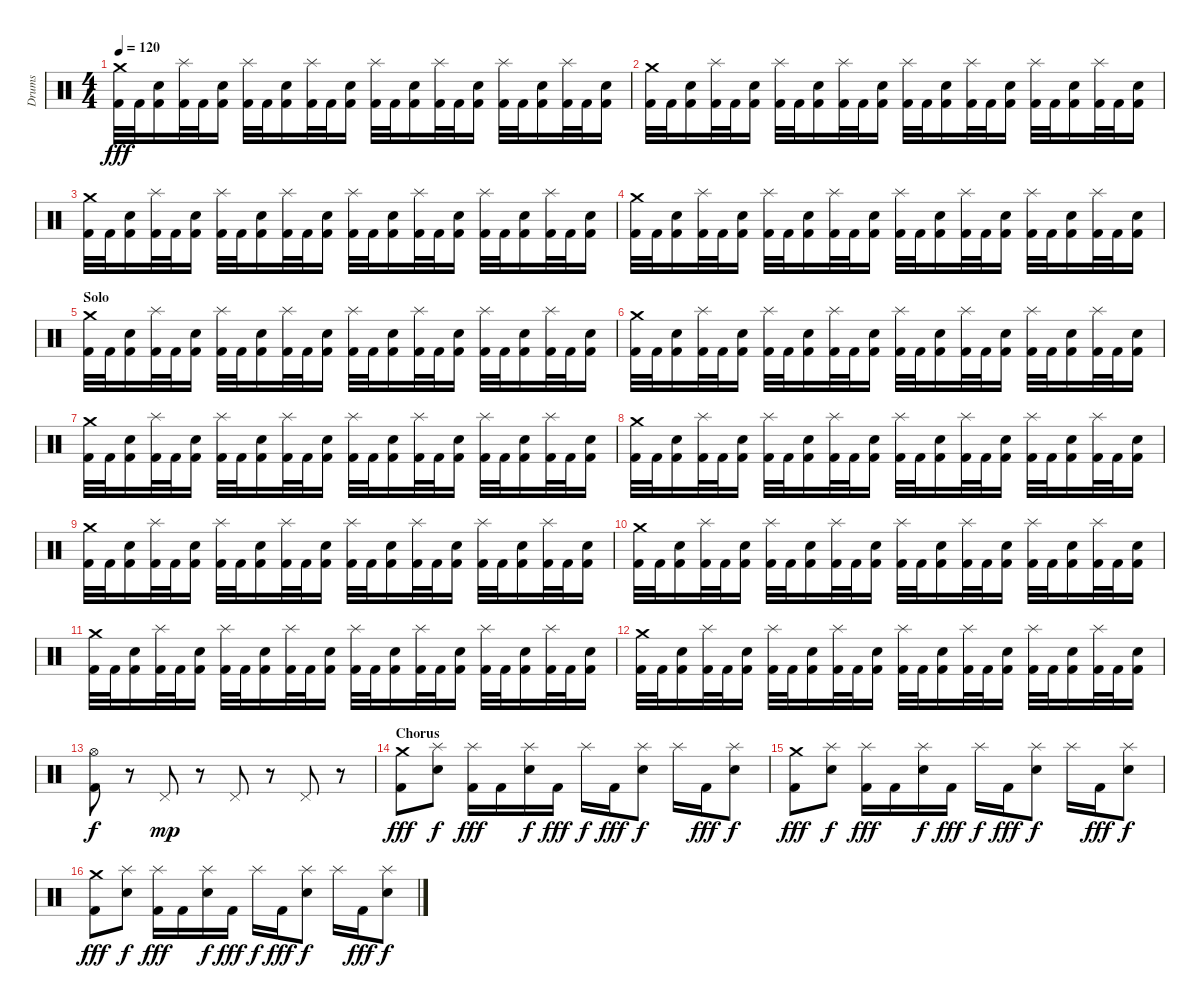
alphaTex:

\track ("Drums" "Drums") {instrument percussion}
\staff {score}
\articulation defaults
\ts (4 4)
\tempo 120
\clef neutral
\ks c
("Crash medium (hit)" "Kick (hit) 2").32{dy fff} "Kick (hit) 2".32 ("Electric Snare (hit)" "Kick (hit) 2").16 ("Splash (hit)" "Kick (hit) 2").32 "Kick (hit) 2".32 ("Electric Snare (hit)" "Kick (hit) 2").16 ("Splash (hit)" "Kick (hit) 2").32 "Kick (hit) 2".32 ("Electric Snare (hit)" "Kick (hit) 2").16 ("Splash (hit)" "Kick (hit) 2").32 "Kick (hit) 2".32 ("Electric Snare (hit)" "Kick (hit) 2").16 ("Splash (hit)" "Kick (hit) 2").32 "Kick (hit) 2".32 ("Electric Snare (hit)" "Kick (hit) 2").16 ("Splash (hit)" "Kick (hit) 2").32 "Kick (hit) 2".32 ("Electric Snare (hit)" "Kick (hit) 2").16 ("Splash (hit)" "Kick (hit) 2").32 "Kick (hit) 2".32 ("Electric Snare (hit)" "Kick (hit) 2").16 ("Splash (hit)" "Kick (hit) 2").32 "Kick (hit) 2".32 ("Electric Snare (hit)" "Kick (hit) 2").16 |
("Crash medium (hit)" "Kick (hit) 2").32 "Kick (hit) 2".32 ("Electric Snare (hit)" "Kick (hit) 2").16 ("Splash (hit)" "Kick (hit) 2").32 "Kick (hit) 2".32 ("Electric Snare (hit)" "Kick (hit) 2").16 ("Splash (hit)" "Kick (hit) 2").32 "Kick (hit) 2".32 ("Electric Snare (hit)" "Kick (hit) 2").16 ("Splash (hit)" "Kick (hit) 2").32 "Kick (hit) 2".32 ("Electric Snare (hit)" "Kick (hit) 2").16 ("Splash (hit)" "Kick (hit) 2").32 "Kick (hit) 2".32 ("Electric Snare (hit)" "Kick (hit) 2").16 ("Splash (hit)" "Kick (hit) 2").32 "Kick (hit) 2".32 ("Electric Snare (hit)" "Kick (hit) 2").16 ("Splash (hit)" "Kick (hit) 2").32 "Kick (hit) 2".32 ("Electric Snare (hit)" "Kick (hit) 2").16 ("Splash (hit)" "Kick (hit) 2").32 "Kick (hit) 2".32 ("Electric Snare (hit)" "Kick (hit) 2").16 |
("Crash medium (hit)" "Kick (hit) 2").32 "Kick (hit) 2".32 ("Electric Snare (hit)" "Kick (hit) 2").16 ("Splash (hit)" "Kick (hit) 2").32 "Kick (hit) 2".32 ("Electric Snare (hit)" "Kick (hit) 2").16 ("Splash (hit)" "Kick (hit) 2").32 "Kick (hit) 2".32 ("Electric Snare (hit)" "Kick (hit) 2").16 ("Splash (hit)" "Kick (hit) 2").32 "Kick (hit) 2".32 ("Electric Snare (hit)" "Kick (hit) 2").16 ("Splash (hit)" "Kick (hit) 2").32 "Kick (hit) 2".32 ("Electric Snare (hit)" "Kick (hit) 2").16 ("Splash (hit)" "Kick (hit) 2").32 "Kick (hit) 2".32 ("Electric Snare (hit)" "Kick (hit) 2").16 ("Splash (hit)" "Kick (hit) 2").32 "Kick (hit) 2".32 ("Electric Snare (hit)" "Kick (hit) 2").16 ("Splash (hit)" "Kick (hit) 2").32 "Kick (hit) 2".32 ("Electric Snare (hit)" "Kick (hit) 2").16 |
("Crash medium (hit)" "Kick (hit) 2").32 "Kick (hit) 2".32 ("Electric Snare (hit)" "Kick (hit) 2").16 ("Splash (hit)" "Kick (hit) 2").32 "Kick (hit) 2".32 ("Electric Snare (hit)" "Kick (hit) 2").16 ("Splash (hit)" "Kick (hit) 2").32 "Kick (hit) 2".32 ("Electric Snare (hit)" "Kick (hit) 2").16 ("Splash (hit)" "Kick (hit) 2").32 "Kick (hit) 2".32 ("Electric Snare (hit)" "Kick (hit) 2").16 ("Splash (hit)" "Kick (hit) 2").32 "Kick (hit) 2".32 ("Electric Snare (hit)" "Kick (hit) 2").16 ("Splash (hit)" "Kick (hit) 2").32 "Kick (hit) 2".32 ("Electric Snare (hit)" "Kick (hit) 2").16 ("Splash (hit)" "Kick (hit) 2").32 "Kick (hit) 2".32 ("Electric Snare (hit)" "Kick (hit) 2").16 ("Splash (hit)" "Kick (hit) 2").32 "Kick (hit) 2".32 ("Electric Snare (hit)" "Kick (hit) 2").16 |
\section ("" "Solo")
("Crash medium (hit)" "Kick (hit) 2").32 "Kick (hit) 2".32 ("Electric Snare (hit)" "Kick (hit) 2").16 ("Splash (hit)" "Kick (hit) 2").32 "Kick (hit) 2".32 ("Electric Snare (hit)" "Kick (hit) 2").16 ("Splash (hit)" "Kick (hit) 2").32 "Kick (hit) 2".32 ("Electric Snare (hit)" "Kick (hit) 2").16 ("Splash (hit)" "Kick (hit) 2").32 "Kick (hit) 2".32 ("Electric Snare (hit)" "Kick (hit) 2").16 ("Splash (hit)" "Kick (hit) 2").32 "Kick (hit) 2".32 ("Electric Snare (hit)" "Kick (hit) 2").16 ("Splash (hit)" "Kick (hit) 2").32 "Kick (hit) 2".32 ("Electric Snare (hit)" "Kick (hit) 2").16 ("Splash (hit)" "Kick (hit) 2").32 "Kick (hit) 2".32 ("Electric Snare (hit)" "Kick (hit) 2").16 ("Splash (hit)" "Kick (hit) 2").32 "Kick (hit) 2".32 ("Electric Snare (hit)" "Kick (hit) 2").16 |
("Crash medium (hit)" "Kick (hit) 2").32 "Kick (hit) 2".32 ("Electric Snare (hit)" "Kick (hit) 2").16 ("Splash (hit)" "Kick (hit) 2").32 "Kick (hit) 2".32 ("Electric Snare (hit)" "Kick (hit) 2").16 ("Splash (hit)" "Kick (hit) 2").32 "Kick (hit) 2".32 ("Electric Snare (hit)" "Kick (hit) 2").16 ("Splash (hit)" "Kick (hit) 2").32 "Kick (hit) 2".32 ("Electric Snare (hit)" "Kick (hit) 2").16 ("Splash (hit)" "Kick (hit) 2").32 "Kick (hit) 2".32 ("Electric Snare (hit)" "Kick (hit) 2").16 ("Splash (hit)" "Kick (hit) 2").32 "Kick (hit) 2".32 ("Electric Snare (hit)" "Kick (hit) 2").16 ("Splash (hit)" "Kick (hit) 2").32 "Kick (hit) 2".32 ("Electric Snare (hit)" "Kick (hit) 2").16 ("Splash (hit)" "Kick (hit) 2").32 "Kick (hit) 2".32 ("Electric Snare (hit)" "Kick (hit) 2").16 |
("Crash medium (hit)" "Kick (hit) 2").32 "Kick (hit) 2".32 ("Electric Snare (hit)" "Kick (hit) 2").16 ("Splash (hit)" "Kick (hit) 2").32 "Kick (hit) 2".32 ("Electric Snare (hit)" "Kick (hit) 2").16 ("Splash (hit)" "Kick (hit) 2").32 "Kick (hit) 2".32 ("Electric Snare (hit)" "Kick (hit) 2").16 ("Splash (hit)" "Kick (hit) 2").32 "Kick (hit) 2".32 ("Electric Snare (hit)" "Kick (hit) 2").16 ("Splash (hit)" "Kick (hit) 2").32 "Kick (hit) 2".32 ("Electric Snare (hit)" "Kick (hit) 2").16 ("Splash (hit)" "Kick (hit) 2").32 "Kick (hit) 2".32 ("Electric Snare (hit)" "Kick (hit) 2").16 ("Splash (hit)" "Kick (hit) 2").32 "Kick (hit) 2".32 ("Electric Snare (hit)" "Kick (hit) 2").16 ("Splash (hit)" "Kick (hit) 2").32 "Kick (hit) 2".32 ("Electric Snare (hit)" "Kick (hit) 2").16 |
("Crash medium (hit)" "Kick (hit) 2").32 "Kick (hit) 2".32 ("Electric Snare (hit)" "Kick (hit) 2").16 ("Splash (hit)" "Kick (hit) 2").32 "Kick (hit) 2".32 ("Electric Snare (hit)" "Kick (hit) 2").16 ("Splash (hit)" "Kick (hit) 2").32 "Kick (hit) 2".32 ("Electric Snare (hit)" "Kick (hit) 2").16 ("Splash (hit)" "Kick (hit) 2").32 "Kick (hit) 2".32 ("Electric Snare (hit)" "Kick (hit) 2").16 ("Splash (hit)" "Kick (hit) 2").32 "Kick (hit) 2".32 ("Electric Snare (hit)" "Kick (hit) 2").16 ("Splash (hit)" "Kick (hit) 2").32 "Kick (hit) 2".32 ("Electric Snare (hit)" "Kick (hit) 2").16 ("Splash (hit)" "Kick (hit) 2").32 "Kick (hit) 2".32 ("Electric Snare (hit)" "Kick (hit) 2").16 ("Splash (hit)" "Kick (hit) 2").32 "Kick (hit) 2".32 ("Electric Snare (hit)" "Kick (hit) 2").16 |
("Crash medium (hit)" "Kick (hit) 2").32 "Kick (hit) 2".32 ("Electric Snare (hit)" "Kick (hit) 2").16 ("Splash (hit)" "Kick (hit) 2").32 "Kick (hit) 2".32 ("Electric Snare (hit)" "Kick (hit) 2").16 ("Splash (hit)" "Kick (hit) 2").32 "Kick (hit) 2".32 ("Electric Snare (hit)" "Kick (hit) 2").16 ("Splash (hit)" "Kick (hit) 2").32 "Kick (hit) 2".32 ("Electric Snare (hit)" "Kick (hit) 2").16 ("Splash (hit)" "Kick (hit) 2").32 "Kick (hit) 2".32 ("Electric Snare (hit)" "Kick (hit) 2").16 ("Splash (hit)" "Kick (hit) 2").32 "Kick (hit) 2".32 ("Electric Snare (hit)" "Kick (hit) 2").16 ("Splash (hit)" "Kick (hit) 2").32 "Kick (hit) 2".32 ("Electric Snare (hit)" "Kick (hit) 2").16 ("Splash (hit)" "Kick (hit) 2").32 "Kick (hit) 2".32 ("Electric Snare (hit)" "Kick (hit) 2").16 |
("Crash medium (hit)" "Kick (hit) 2").32 "Kick (hit) 2".32 ("Electric Snare (hit)" "Kick (hit) 2").16 ("Splash (hit)" "Kick (hit) 2").32 "Kick (hit) 2".32 ("Electric Snare (hit)" "Kick (hit) 2").16 ("Splash (hit)" "Kick (hit) 2").32 "Kick (hit) 2".32 ("Electric Snare (hit)" "Kick (hit) 2").16 ("Splash (hit)" "Kick (hit) 2").32 "Kick (hit) 2".32 ("Electric Snare (hit)" "Kick (hit) 2").16 ("Splash (hit)" "Kick (hit) 2").32 "Kick (hit) 2".32 ("Electric Snare (hit)" "Kick (hit) 2").16 ("Splash (hit)" "Kick (hit) 2").32 "Kick (hit) 2".32 ("Electric Snare (hit)" "Kick (hit) 2").16 ("Splash (hit)" "Kick (hit) 2").32 "Kick (hit) 2".32 ("Electric Snare (hit)" "Kick (hit) 2").16 ("Splash (hit)" "Kick (hit) 2").32 "Kick (hit) 2".32 ("Electric Snare (hit)" "Kick (hit) 2").16 |
("Crash medium (hit)" "Kick (hit) 2").32 "Kick (hit) 2".32 ("Electric Snare (hit)" "Kick (hit) 2").16 ("Splash (hit)" "Kick (hit) 2").32 "Kick (hit) 2".32 ("Electric Snare (hit)" "Kick (hit) 2").16 ("Splash (hit)" "Kick (hit) 2").32 "Kick (hit) 2".32 ("Electric Snare (hit)" "Kick (hit) 2").16 ("Splash (hit)" "Kick (hit) 2").32 "Kick (hit) 2".32 ("Electric Snare (hit)" "Kick (hit) 2").16 ("Splash (hit)" "Kick (hit) 2").32 "Kick (hit) 2".32 ("Electric Snare (hit)" "Kick (hit) 2").16 ("Splash (hit)" "Kick (hit) 2").32 "Kick (hit) 2".32 ("Electric Snare (hit)" "Kick (hit) 2").16 ("Splash (hit)" "Kick (hit) 2").32 "Kick (hit) 2".32 ("Electric Snare (hit)" "Kick (hit) 2").16 ("Splash (hit)" "Kick (hit) 2").32 "Kick (hit) 2".32 ("Electric Snare (hit)" "Kick (hit) 2").16 |
("Crash medium (hit)" "Kick (hit) 2").32 "Kick (hit) 2".32 ("Electric Snare (hit)" "Kick (hit) 2").16 ("Splash (hit)" "Kick (hit) 2").32 "Kick (hit) 2".32 ("Electric Snare (hit)" "Kick (hit) 2").16 ("Splash (hit)" "Kick (hit) 2").32 "Kick (hit) 2".32 ("Electric Snare (hit)" "Kick (hit) 2").16 ("Splash (hit)" "Kick (hit) 2").32 "Kick (hit) 2".32 ("Electric Snare (hit)" "Kick (hit) 2").16 ("Splash (hit)" "Kick (hit) 2").32 "Kick (hit) 2".32 ("Electric Snare (hit)" "Kick (hit) 2").16 ("Splash (hit)" "Kick (hit) 2").32 "Kick (hit) 2".32 ("Electric Snare (hit)" "Kick (hit) 2").16 ("Splash (hit)" "Kick (hit) 2").32 "Kick (hit) 2".32 ("Electric Snare (hit)" "Kick (hit) 2").16 ("Splash (hit)" "Kick (hit) 2").32 "Kick (hit) 2".32 ("Electric Snare (hit)" "Kick (hit) 2").16 |
("Hi-Hat (open)" "Kick (hit) 2").8{dy f} r.8 "Pedal Hi-Hat (hit)".8{dy mp} r.8 "Pedal Hi-Hat (hit)".8 r.8 "Pedal Hi-Hat (hit)".8 r.8 |
\section ("" "Chorus")
("Crash medium (hit)" "Kick (hit) 2").8{dy fff} ("Splash (hit)" "Electric Snare (hit)").8{dy f} ("Splash (hit)" "Kick (hit) 2").16{dy fff} "Kick (hit) 2".16 ("Splash (hit)" "Electric Snare (hit)").16{dy f} "Kick (hit) 2".16{dy fff} "Splash (hit)".16{dy f} "Kick (hit) 2".16{dy fff} ("Splash (hit)" "Electric Snare (hit)").8{dy f} "Splash (hit)".16 "Kick (hit) 2".16{dy fff} ("Splash (hit)" "Electric Snare (hit)").8{dy f} |
("Crash medium (hit)" "Kick (hit) 2").8{dy fff} ("Splash (hit)" "Electric Snare (hit)").8{dy f} ("Splash (hit)" "Kick (hit) 2").16{dy fff} "Kick (hit) 2".16 ("Splash (hit)" "Electric Snare (hit)").16{dy f} "Kick (hit) 2".16{dy fff} "Splash (hit)".16{dy f} "Kick (hit) 2".16{dy fff} ("Splash (hit)" "Electric Snare (hit)").8{dy f} "Splash (hit)".16 "Kick (hit) 2".16{dy fff} ("Splash (hit)" "Electric Snare (hit)").8{dy f} |
("Crash medium (hit)" "Kick (hit) 2").8{dy fff} ("Splash (hit)" "Electric Snare (hit)").8{dy f} ("Splash (hit)" "Kick (hit) 2").16{dy fff} "Kick (hit) 2".16 ("Splash (hit)" "Electric Snare (hit)").16{dy f} "Kick (hit) 2".16{dy fff} "Splash (hit)".16{dy f} "Kick (hit) 2".16{dy fff} ("Splash (hit)" "Electric Snare (hit)").8{dy f} "Splash (hit)".16 "Kick (hit) 2".16{dy fff} ("Splash (hit)" "Electric Snare (hit)").8{dy f}
